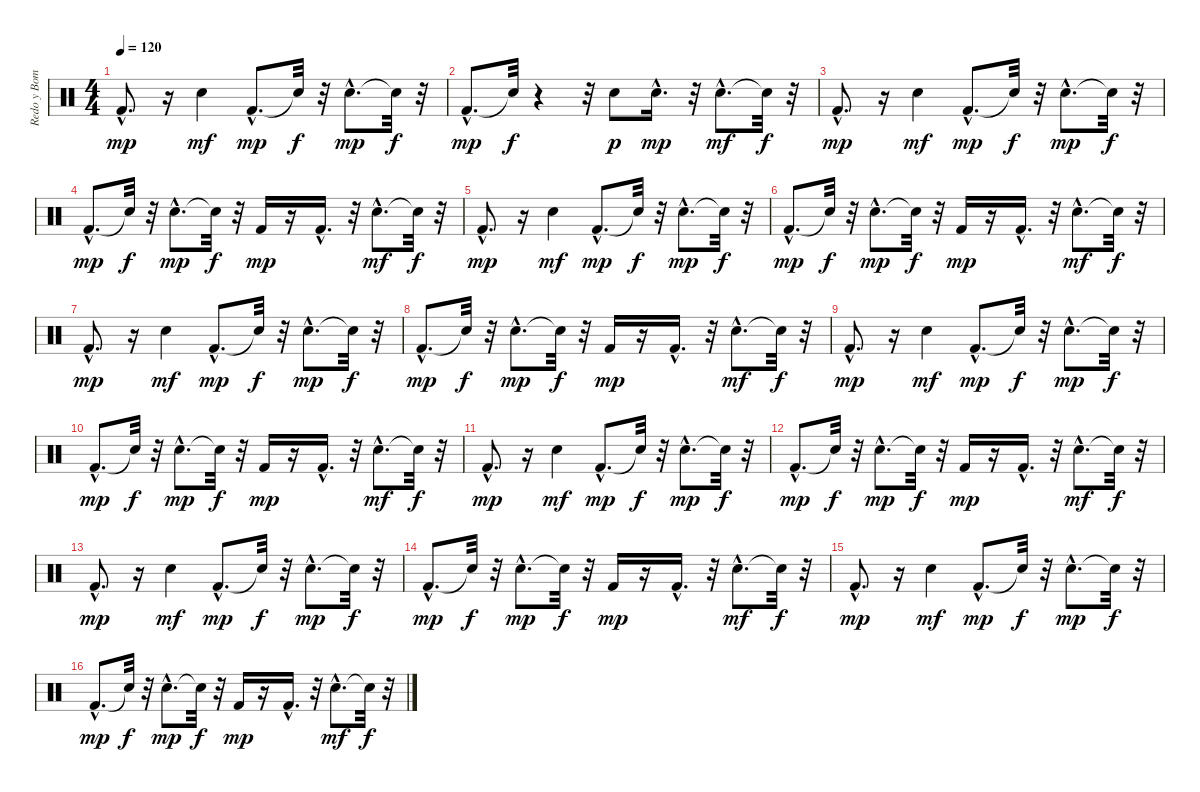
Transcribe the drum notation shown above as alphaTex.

\track ("Redo y Bombo" "Redo y Bom") {instrument percussion}
\staff {score}
\articulation defaults
\ts (4 4)
\tempo 120
\clef neutral
\ks c "Kick (hit) 2"{hac}.8{d dy mp}
r.16 "Snare (hit) 2".4{dy mf} "Kick (hit) 2"{hac}.8{d dy mp} "Snare (hit)"{t}.32{dy f} r.32 "Snare (hit) 2"{hac}.8{d dy mp} "Snare (hit)"{t}.32{dy f} r.32 |
"Kick (hit) 2"{hac}.8{d dy mp} "Snare (hit)"{t}.32{dy f} r.4 r.32 "Electric Snare (hit)".8{dy p} "Electric Snare (hit)"{hac}.16{d dy mp} r.32 "Electric Snare (hit)"{hac}.8{d dy mf} "Snare (hit)"{t}.32{dy f} r.32 |
"Kick (hit) 2"{hac}.8{d dy mp} r.16 "Snare (hit) 2".4{dy mf} "Kick (hit) 2"{hac}.8{d dy mp} "Snare (hit)"{t}.32{dy f} r.32 "Snare (hit) 2"{hac}.8{d dy mp} "Snare (hit)"{t}.32{dy f} r.32 |
"Kick (hit) 2"{hac}.8{d dy mp} "Snare (hit)"{t}.32{dy f} r.32 "Snare (hit) 2"{hac}.8{d dy mp} "Snare (hit)"{t}.32{dy f} r.32 "Kick (hit) 2".16{dy mp} r.16 "Kick (hit) 2"{hac}.16{d} r.32 "Snare (hit) 2"{hac}.8{d dy mf} "Snare (hit)"{t}.32{dy f} r.32 |
"Kick (hit) 2"{hac}.8{d dy mp} r.16 "Snare (hit) 2".4{dy mf} "Kick (hit) 2"{hac}.8{d dy mp} "Snare (hit)"{t}.32{dy f} r.32 "Snare (hit) 2"{hac}.8{d dy mp} "Snare (hit)"{t}.32{dy f} r.32 |
"Kick (hit) 2"{hac}.8{d dy mp} "Snare (hit)"{t}.32{dy f} r.32 "Snare (hit) 2"{hac}.8{d dy mp} "Snare (hit)"{t}.32{dy f} r.32 "Kick (hit) 2".16{dy mp} r.16 "Kick (hit) 2"{hac}.16{d} r.32 "Snare (hit) 2"{hac}.8{d dy mf} "Snare (hit)"{t}.32{dy f} r.32 |
"Kick (hit) 2"{hac}.8{d dy mp} r.16 "Snare (hit) 2".4{dy mf} "Kick (hit) 2"{hac}.8{d dy mp} "Snare (hit)"{t}.32{dy f} r.32 "Snare (hit) 2"{hac}.8{d dy mp} "Snare (hit)"{t}.32{dy f} r.32 |
"Kick (hit) 2"{hac}.8{d dy mp} "Snare (hit)"{t}.32{dy f} r.32 "Snare (hit) 2"{hac}.8{d dy mp} "Snare (hit)"{t}.32{dy f} r.32 "Kick (hit) 2".16{dy mp} r.16 "Kick (hit) 2"{hac}.16{d} r.32 "Snare (hit) 2"{hac}.8{d dy mf} "Snare (hit)"{t}.32{dy f} r.32 |
"Kick (hit) 2"{hac}.8{d dy mp} r.16 "Snare (hit) 2".4{dy mf} "Kick (hit) 2"{hac}.8{d dy mp} "Snare (hit)"{t}.32{dy f} r.32 "Snare (hit) 2"{hac}.8{d dy mp} "Snare (hit)"{t}.32{dy f} r.32 |
"Kick (hit) 2"{hac}.8{d dy mp} "Snare (hit)"{t}.32{dy f} r.32 "Snare (hit) 2"{hac}.8{d dy mp} "Snare (hit)"{t}.32{dy f} r.32 "Kick (hit) 2".16{dy mp} r.16 "Kick (hit) 2"{hac}.16{d} r.32 "Snare (hit) 2"{hac}.8{d dy mf} "Snare (hit)"{t}.32{dy f} r.32 |
"Kick (hit) 2"{hac}.8{d dy mp} r.16 "Snare (hit) 2".4{dy mf} "Kick (hit) 2"{hac}.8{d dy mp} "Snare (hit)"{t}.32{dy f} r.32 "Snare (hit) 2"{hac}.8{d dy mp} "Snare (hit)"{t}.32{dy f} r.32 |
"Kick (hit) 2"{hac}.8{d dy mp} "Snare (hit)"{t}.32{dy f} r.32 "Snare (hit) 2"{hac}.8{d dy mp} "Snare (hit)"{t}.32{dy f} r.32 "Kick (hit) 2".16{dy mp} r.16 "Kick (hit) 2"{hac}.16{d} r.32 "Snare (hit) 2"{hac}.8{d dy mf} "Snare (hit)"{t}.32{dy f} r.32 |
"Kick (hit) 2"{hac}.8{d dy mp} r.16 "Snare (hit) 2".4{dy mf} "Kick (hit) 2"{hac}.8{d dy mp} "Snare (hit)"{t}.32{dy f} r.32 "Snare (hit) 2"{hac}.8{d dy mp} "Snare (hit)"{t}.32{dy f} r.32 |
"Kick (hit) 2"{hac}.8{d dy mp} "Snare (hit)"{t}.32{dy f} r.32 "Snare (hit) 2"{hac}.8{d dy mp} "Snare (hit)"{t}.32{dy f} r.32 "Kick (hit) 2".16{dy mp} r.16 "Kick (hit) 2"{hac}.16{d} r.32 "Snare (hit) 2"{hac}.8{d dy mf} "Snare (hit)"{t}.32{dy f} r.32 |
"Kick (hit) 2"{hac}.8{d dy mp} r.16 "Snare (hit) 2".4{dy mf} "Kick (hit) 2"{hac}.8{d dy mp} "Snare (hit)"{t}.32{dy f} r.32 "Snare (hit) 2"{hac}.8{d dy mp} "Snare (hit)"{t}.32{dy f} r.32 |
"Kick (hit) 2"{hac}.8{d dy mp} "Snare (hit)"{t}.32{dy f} r.32 "Snare (hit) 2"{hac}.8{d dy mp} "Snare (hit)"{t}.32{dy f} r.32 "Kick (hit) 2".16{dy mp} r.16 "Kick (hit) 2"{hac}.16{d} r.32 "Snare (hit) 2"{hac}.8{d dy mf} "Snare (hit)"{t}.32{dy f} r.32
